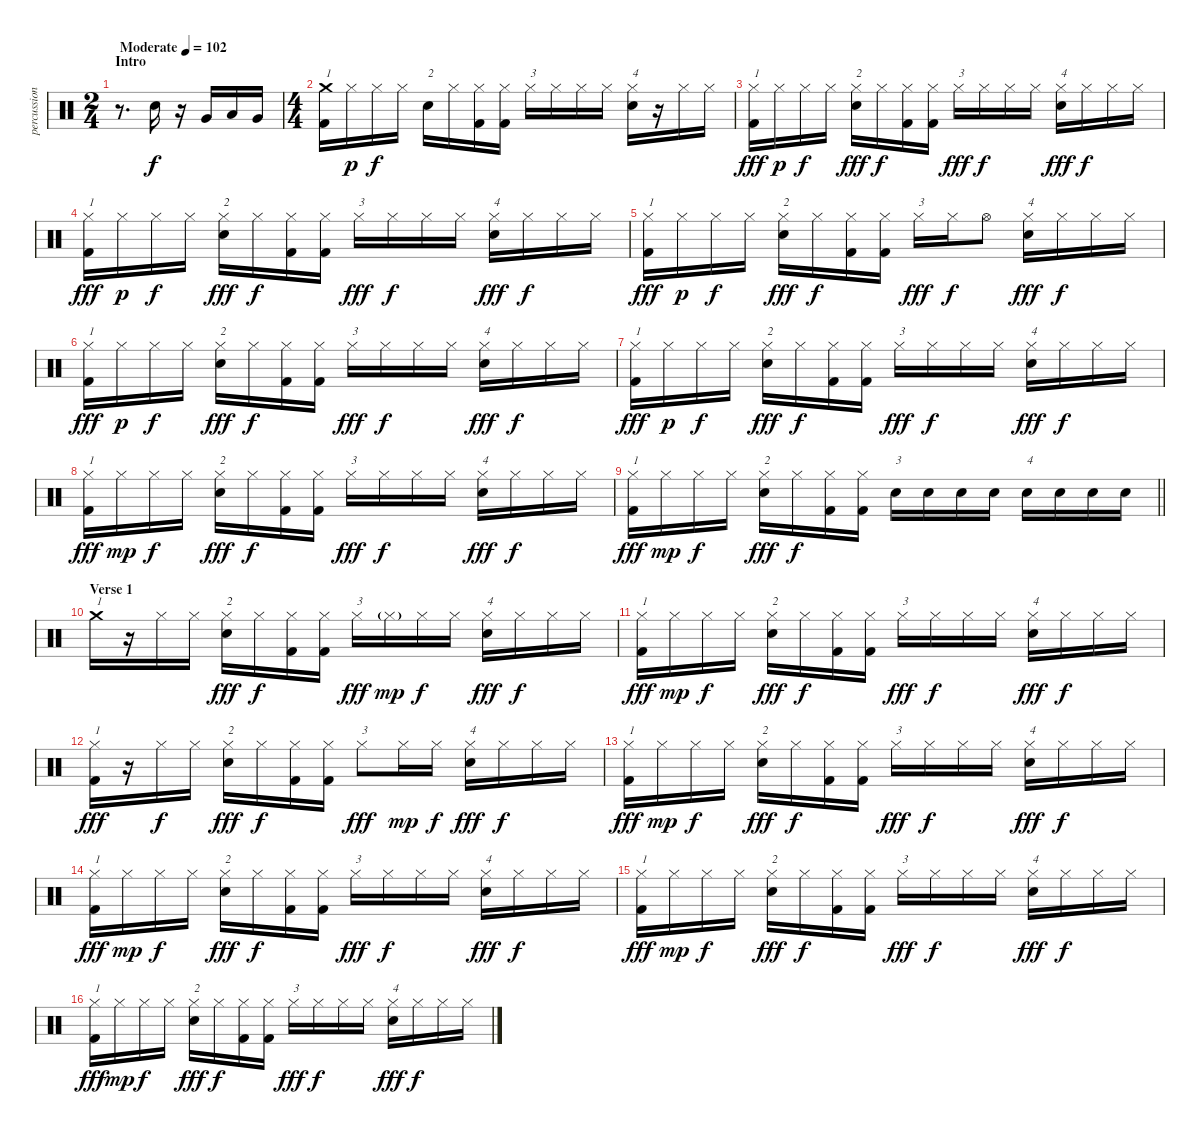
\track ("percussion" "percussion") {instrument percussion}
\staff {score}
\articulation defaults
\ts (2 4)
\section ("" "Intro")
\tempo (102 "Moderate")
\clef neutral
\ks c
r.8{d dy f} "Snare (hit) 2".16 r.16 "Very Low Tom (hit)".16 "Low Tom (hit)".16 "Very Low Tom (hit)".16 |
\ts (4 4)
("Crash medium (hit)" "Kick (hit) 2").16{txt "1"} "Hi-Hat (closed)".16{dy p} "Hi-Hat (closed)".16{dy f} "Hi-Hat (closed)".16 "Snare (hit) 2".16{txt "2"} "Hi-Hat (closed)".16 ("Hi-Hat (closed)" "Kick (hit) 2").16 ("Hi-Hat (closed)" "Kick (hit) 2").16 "Hi-Hat (closed)".16{txt "3"} "Hi-Hat (closed)".16 "Hi-Hat (closed)".16 "Hi-Hat (closed)".16 ("Snare (hit) 2" "Hi-Hat (closed)").16{txt "4"} r.16 "Hi-Hat (closed)".16 "Hi-Hat (closed)".16 |
("Hi-Hat (closed)" "Kick (hit) 2").16{txt "1" dy fff} "Hi-Hat (closed)".16{dy p} "Hi-Hat (closed)".16{dy f} "Hi-Hat (closed)".16 ("Snare (hit) 2" "Hi-Hat (closed)").16{txt "2" dy fff} "Hi-Hat (closed)".16{dy f} ("Hi-Hat (closed)" "Kick (hit) 2").16 ("Hi-Hat (closed)" "Kick (hit) 2").16 "Hi-Hat (closed)".16{txt "3" dy fff} "Hi-Hat (closed)".16{dy f} "Hi-Hat (closed)".16 "Hi-Hat (closed)".16 ("Snare (hit) 2" "Hi-Hat (closed)").16{txt "4" dy fff} "Hi-Hat (closed)".16{dy f} "Hi-Hat (closed)".16 "Hi-Hat (closed)".16 |
("Hi-Hat (closed)" "Kick (hit) 2").16{txt "1" dy fff} "Hi-Hat (closed)".16{dy p} "Hi-Hat (closed)".16{dy f} "Hi-Hat (closed)".16 ("Snare (hit) 2" "Hi-Hat (closed)").16{txt "2" dy fff} "Hi-Hat (closed)".16{dy f} ("Hi-Hat (closed)" "Kick (hit) 2").16 ("Hi-Hat (closed)" "Kick (hit) 2").16 "Hi-Hat (closed)".16{txt "3" dy fff} "Hi-Hat (closed)".16{dy f} "Hi-Hat (closed)".16 "Hi-Hat (closed)".16 ("Snare (hit) 2" "Hi-Hat (closed)").16{txt "4" dy fff} "Hi-Hat (closed)".16{dy f} "Hi-Hat (closed)".16 "Hi-Hat (closed)".16 |
("Hi-Hat (closed)" "Kick (hit) 2").16{txt "1" dy fff} "Hi-Hat (closed)".16{dy p} "Hi-Hat (closed)".16{dy f} "Hi-Hat (closed)".16 ("Snare (hit) 2" "Hi-Hat (closed)").16{txt "2" dy fff} "Hi-Hat (closed)".16{dy f} ("Hi-Hat (closed)" "Kick (hit) 2").16 ("Hi-Hat (closed)" "Kick (hit) 2").16 "Hi-Hat (closed)".16{txt "3" dy fff} "Hi-Hat (closed)".16{dy f} "Hi-Hat (open)".8 ("Snare (hit) 2" "Hi-Hat (closed)").16{txt "4" dy fff} "Hi-Hat (closed)".16{dy f} "Hi-Hat (closed)".16 "Hi-Hat (closed)".16 |
("Hi-Hat (closed)" "Kick (hit) 2").16{txt "1" dy fff} "Hi-Hat (closed)".16{dy p} "Hi-Hat (closed)".16{dy f} "Hi-Hat (closed)".16 ("Snare (hit) 2" "Hi-Hat (closed)").16{txt "2" dy fff} "Hi-Hat (closed)".16{dy f} ("Hi-Hat (closed)" "Kick (hit) 2").16 ("Hi-Hat (closed)" "Kick (hit) 2").16 "Hi-Hat (closed)".16{txt "3" dy fff} "Hi-Hat (closed)".16{dy f} "Hi-Hat (closed)".16 "Hi-Hat (closed)".16 ("Snare (hit) 2" "Hi-Hat (closed)").16{txt "4" dy fff} "Hi-Hat (closed)".16{dy f} "Hi-Hat (closed)".16 "Hi-Hat (closed)".16 |
("Hi-Hat (closed)" "Kick (hit) 2").16{txt "1" dy fff} "Hi-Hat (closed)".16{dy p} "Hi-Hat (closed)".16{dy f} "Hi-Hat (closed)".16 ("Snare (hit) 2" "Hi-Hat (closed)").16{txt "2" dy fff} "Hi-Hat (closed)".16{dy f} ("Hi-Hat (closed)" "Kick (hit) 2").16 ("Hi-Hat (closed)" "Kick (hit) 2").16 "Hi-Hat (closed)".16{txt "3" dy fff} "Hi-Hat (closed)".16{dy f} "Hi-Hat (closed)".16 "Hi-Hat (closed)".16 ("Snare (hit) 2" "Hi-Hat (closed)").16{txt "4" dy fff} "Hi-Hat (closed)".16{dy f} "Hi-Hat (closed)".16 "Hi-Hat (closed)".16 |
("Hi-Hat (closed)" "Kick (hit) 2").16{txt "1" dy fff} "Hi-Hat (closed)".16{dy mp} "Hi-Hat (closed)".16{dy f} "Hi-Hat (closed)".16 ("Snare (hit) 2" "Hi-Hat (closed)").16{txt "2" dy fff} "Hi-Hat (closed)".16{dy f} ("Hi-Hat (closed)" "Kick (hit) 2").16 ("Hi-Hat (closed)" "Kick (hit) 2").16 "Hi-Hat (closed)".16{txt "3" dy fff} "Hi-Hat (closed)".16{dy f} "Hi-Hat (closed)".16 "Hi-Hat (closed)".16 ("Snare (hit) 2" "Hi-Hat (closed)").16{txt "4" dy fff} "Hi-Hat (closed)".16{dy f} "Hi-Hat (closed)".16 "Hi-Hat (closed)".16 |
\barLineRight lightlight
("Hi-Hat (closed)" "Kick (hit) 2").16{txt "1" dy fff} "Hi-Hat (closed)".16{dy mp} "Hi-Hat (closed)".16{dy f} "Hi-Hat (closed)".16 ("Snare (hit) 2" "Hi-Hat (closed)").16{txt "2" dy fff} "Hi-Hat (closed)".16{dy f} ("Hi-Hat (closed)" "Kick (hit) 2").16 ("Hi-Hat (closed)" "Kick (hit) 2").16 "Snare (hit) 2".16{txt "3"} "Snare (hit) 2".16 "Snare (hit) 2".16 "Snare (hit) 2".16 "Snare (hit) 2".16{txt "4"} "Snare (hit) 2".16 "Snare (hit) 2".16 "Snare (hit) 2".16 |
\section ("" "Verse 1")
"Crash medium (hit)".16{txt "1"} r.16 "Hi-Hat (closed)".16 "Hi-Hat (closed)".16 ("Snare (hit) 2" "Hi-Hat (closed)").16{txt "2" dy fff} "Hi-Hat (closed)".16{dy f} ("Hi-Hat (closed)" "Kick (hit) 2").16 ("Hi-Hat (closed)" "Kick (hit) 2").16 "Hi-Hat (closed)".16{txt "3" dy fff} "Hi-Hat (closed)"{g}.16{dy mp} "Hi-Hat (closed)".16{dy f} "Hi-Hat (closed)".16 ("Snare (hit) 2" "Hi-Hat (closed)").16{txt "4" dy fff} "Hi-Hat (closed)".16{dy f} "Hi-Hat (closed)".16 "Hi-Hat (closed)".16 |
("Hi-Hat (closed)" "Kick (hit) 2").16{txt "1" dy fff} "Hi-Hat (closed)".16{dy mp} "Hi-Hat (closed)".16{dy f} "Hi-Hat (closed)".16 ("Snare (hit) 2" "Hi-Hat (closed)").16{txt "2" dy fff} "Hi-Hat (closed)".16{dy f} ("Hi-Hat (closed)" "Kick (hit) 2").16 ("Hi-Hat (closed)" "Kick (hit) 2").16 "Hi-Hat (closed)".16{txt "3" dy fff} "Hi-Hat (closed)".16{dy f} "Hi-Hat (closed)".16 "Hi-Hat (closed)".16 ("Snare (hit) 2" "Hi-Hat (closed)").16{txt "4" dy fff} "Hi-Hat (closed)".16{dy f} "Hi-Hat (closed)".16 "Hi-Hat (closed)".16 |
("Hi-Hat (closed)" "Kick (hit) 2").16{txt "1" dy fff} r.16 "Hi-Hat (closed)".16{dy f} "Hi-Hat (closed)".16 ("Snare (hit) 2" "Hi-Hat (closed)").16{txt "2" dy fff} "Hi-Hat (closed)".16{dy f} ("Hi-Hat (closed)" "Kick (hit) 2").16 ("Hi-Hat (closed)" "Kick (hit) 2").16 "Hi-Hat (closed)".8{txt "3" dy fff} "Hi-Hat (closed)".16{dy mp} "Hi-Hat (closed)".16{dy f} ("Snare (hit) 2" "Hi-Hat (closed)").16{txt "4" dy fff} "Hi-Hat (closed)".16{dy f} "Hi-Hat (closed)".16 "Hi-Hat (closed)".16 |
("Hi-Hat (closed)" "Kick (hit) 2").16{txt "1" dy fff} "Hi-Hat (closed)".16{dy mp} "Hi-Hat (closed)".16{dy f} "Hi-Hat (closed)".16 ("Snare (hit) 2" "Hi-Hat (closed)").16{txt "2" dy fff} "Hi-Hat (closed)".16{dy f} ("Hi-Hat (closed)" "Kick (hit) 2").16 ("Hi-Hat (closed)" "Kick (hit) 2").16 "Hi-Hat (closed)".16{txt "3" dy fff} "Hi-Hat (closed)".16{dy f} "Hi-Hat (closed)".16 "Hi-Hat (closed)".16 ("Snare (hit) 2" "Hi-Hat (closed)").16{txt "4" dy fff} "Hi-Hat (closed)".16{dy f} "Hi-Hat (closed)".16 "Hi-Hat (closed)".16 |
("Hi-Hat (closed)" "Kick (hit) 2").16{txt "1" dy fff} "Hi-Hat (closed)".16{dy mp} "Hi-Hat (closed)".16{dy f} "Hi-Hat (closed)".16 ("Snare (hit) 2" "Hi-Hat (closed)").16{txt "2" dy fff} "Hi-Hat (closed)".16{dy f} ("Hi-Hat (closed)" "Kick (hit) 2").16 ("Hi-Hat (closed)" "Kick (hit) 2").16 "Hi-Hat (closed)".16{txt "3" dy fff} "Hi-Hat (closed)".16{dy f} "Hi-Hat (closed)".16 "Hi-Hat (closed)".16 ("Snare (hit) 2" "Hi-Hat (closed)").16{txt "4" dy fff} "Hi-Hat (closed)".16{dy f} "Hi-Hat (closed)".16 "Hi-Hat (closed)".16 |
("Hi-Hat (closed)" "Kick (hit) 2").16{txt "1" dy fff} "Hi-Hat (closed)".16{dy mp} "Hi-Hat (closed)".16{dy f} "Hi-Hat (closed)".16 ("Snare (hit) 2" "Hi-Hat (closed)").16{txt "2" dy fff} "Hi-Hat (closed)".16{dy f} ("Hi-Hat (closed)" "Kick (hit) 2").16 ("Hi-Hat (closed)" "Kick (hit) 2").16 "Hi-Hat (closed)".16{txt "3" dy fff} "Hi-Hat (closed)".16{dy f} "Hi-Hat (closed)".16 "Hi-Hat (closed)".16 ("Snare (hit) 2" "Hi-Hat (closed)").16{txt "4" dy fff} "Hi-Hat (closed)".16{dy f} "Hi-Hat (closed)".16 "Hi-Hat (closed)".16 |
("Hi-Hat (closed)" "Kick (hit) 2").16{txt "1" dy fff} "Hi-Hat (closed)".16{dy mp} "Hi-Hat (closed)".16{dy f} "Hi-Hat (closed)".16 ("Snare (hit) 2" "Hi-Hat (closed)").16{txt "2" dy fff} "Hi-Hat (closed)".16{dy f} ("Hi-Hat (closed)" "Kick (hit) 2").16 ("Hi-Hat (closed)" "Kick (hit) 2").16 "Hi-Hat (closed)".16{txt "3" dy fff} "Hi-Hat (closed)".16{dy f} "Hi-Hat (closed)".16 "Hi-Hat (closed)".16 ("Snare (hit) 2" "Hi-Hat (closed)").16{txt "4" dy fff} "Hi-Hat (closed)".16{dy f} "Hi-Hat (closed)".16 "Hi-Hat (closed)".16
